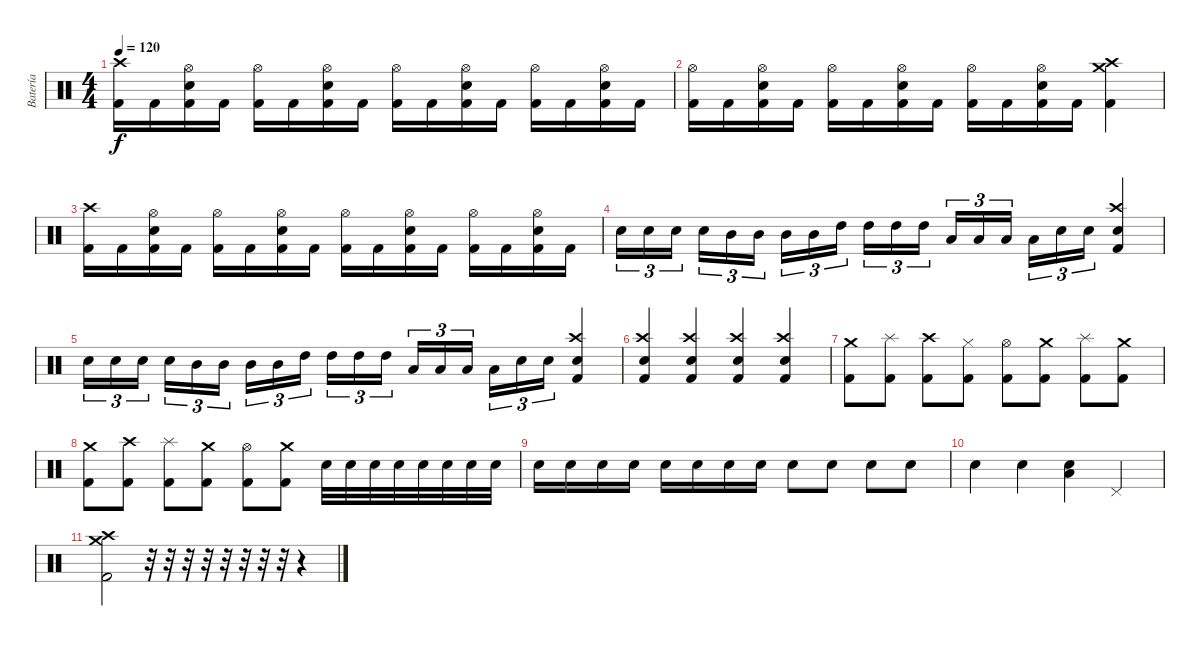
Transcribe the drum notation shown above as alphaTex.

\track ("Batería" "Batería") {instrument percussion}
\staff {score}
\articulation defaults
\ts (4 4)
\tempo 120
\clef neutral
\ks c
("Kick (hit) 2" "Crash high (hit)").16{dy f} "Kick (hit) 2".16 ("Kick (hit) 2" "Hi-Hat (open)" "Snare (hit) 2").16 "Kick (hit) 2".16 ("Kick (hit) 2" "Hi-Hat (open)").16 "Kick (hit) 2".16 ("Kick (hit) 2" "Hi-Hat (open)" "Snare (hit) 2").16 "Kick (hit) 2".16 ("Kick (hit) 2" "Hi-Hat (open)").16 "Kick (hit) 2".16 ("Kick (hit) 2" "Hi-Hat (open)" "Snare (hit) 2").16 "Kick (hit) 2".16 ("Kick (hit) 2" "Hi-Hat (open)").16 "Kick (hit) 2".16 ("Kick (hit) 2" "Hi-Hat (open)" "Snare (hit) 2").16 "Kick (hit) 2".16 |
("Kick (hit) 2" "Hi-Hat (open)").16 "Kick (hit) 2".16 ("Kick (hit) 2" "Hi-Hat (open)" "Snare (hit) 2").16 "Kick (hit) 2".16 ("Kick (hit) 2" "Hi-Hat (open)").16 "Kick (hit) 2".16 ("Kick (hit) 2" "Hi-Hat (open)" "Snare (hit) 2").16 "Kick (hit) 2".16 ("Kick (hit) 2" "Hi-Hat (open)").16 "Kick (hit) 2".16 ("Kick (hit) 2" "Hi-Hat (open)" "Snare (hit) 2").16 "Kick (hit) 2".16 ("Crash high (hit)" "Crash medium (hit)" "Kick (hit) 2").4 |
("Kick (hit) 2" "Crash high (hit)").16 "Kick (hit) 2".16 ("Kick (hit) 2" "Hi-Hat (open)" "Snare (hit) 2").16 "Kick (hit) 2".16 ("Kick (hit) 2" "Hi-Hat (open)").16 "Kick (hit) 2".16 ("Kick (hit) 2" "Hi-Hat (open)" "Snare (hit) 2").16 "Kick (hit) 2".16 ("Kick (hit) 2" "Hi-Hat (open)").16 "Kick (hit) 2".16 ("Kick (hit) 2" "Hi-Hat (open)" "Snare (hit) 2").16 "Kick (hit) 2".16 ("Kick (hit) 2" "Hi-Hat (open)").16 "Kick (hit) 2".16 ("Kick (hit) 2" "Hi-Hat (open)" "Snare (hit) 2").16 "Kick (hit) 2".16 |
"Snare (hit) 2".16{tu (3 2)} "Snare (hit) 2".16{tu (3 2)} "Snare (hit) 2".16{tu (3 2)} "Snare (hit) 2".16{tu (3 2)} "Mid Tom (hit)".16{tu (3 2)} "Mid Tom (hit)".16{tu (3 2)} "Mid Tom (hit)".16{tu (3 2)} "Mid Tom (hit)".16{tu (3 2)} "High Tom (hit)".16{tu (3 2)} "High Tom (hit)".16{tu (3 2)} "High Tom (hit)".16{tu (3 2)} "High Tom (hit)".16{tu (3 2)} "Low Tom (hit)".16{tu (3 2)} "Low Tom (hit)".16{tu (3 2)} "Low Tom (hit)".16{tu (3 2)} "Low Tom (hit)".16{tu (3 2)} "Snare (hit) 2".16{tu (3 2)} "Snare (hit) 2".16{tu (3 2)} ("Crash high (hit)" "Kick (hit) 2" "Snare (hit) 2").4 |
"Snare (hit) 2".16{tu (3 2)} "Snare (hit) 2".16{tu (3 2)} "Snare (hit) 2".16{tu (3 2)} "Snare (hit) 2".16{tu (3 2)} "Mid Tom (hit)".16{tu (3 2)} "Mid Tom (hit)".16{tu (3 2)} "Mid Tom (hit)".16{tu (3 2)} "Mid Tom (hit)".16{tu (3 2)} "High Tom (hit)".16{tu (3 2)} "High Tom (hit)".16{tu (3 2)} "High Tom (hit)".16{tu (3 2)} "High Tom (hit)".16{tu (3 2)} "Low Tom (hit)".16{tu (3 2)} "Low Tom (hit)".16{tu (3 2)} "Low Tom (hit)".16{tu (3 2)} "Low Tom (hit)".16{tu (3 2)} "Snare (hit) 2".16{tu (3 2)} "Snare (hit) 2".16{tu (3 2)} ("Crash high (hit)" "Kick (hit) 2" "Snare (hit) 2").4 |
("Crash high (hit)" "Kick (hit) 2" "Snare (hit) 2").4 ("Crash high (hit)" "Kick (hit) 2" "Snare (hit) 2").4 ("Crash high (hit)" "Kick (hit) 2" "Snare (hit) 2").4 ("Crash high (hit)" "Kick (hit) 2" "Snare (hit) 2").4 |
("Crash medium (hit)" "Kick (hit) 2").8 ("Splash (hit)" "Kick (hit) 2").8 ("Crash high (hit)" "Kick (hit) 2").8 ("Hi-Hat (closed)" "Kick (hit) 2").8 ("Hi-Hat (open)" "Kick (hit) 2").8 ("Crash medium (hit)" "Kick (hit) 2").8 ("Splash (hit)" "Kick (hit) 2").8 ("Crash medium (hit)" "Kick (hit) 2").8 |
("Crash medium (hit)" "Kick (hit) 2").8 ("Crash high (hit)" "Kick (hit) 2").8 ("Splash (hit)" "Kick (hit) 2").8 ("Crash medium (hit)" "Kick (hit) 2").8 ("Hi-Hat (open)" "Kick (hit) 2").8 ("Crash medium (hit)" "Kick (hit) 2").8 "Snare (hit) 2".32 "Snare (hit) 2".32 "Snare (hit) 2".32 "Snare (hit) 2".32 "Snare (hit) 2".32 "Snare (hit) 2".32 "Snare (hit) 2".32 "Snare (hit) 2".32 |
"Snare (hit) 2".16 "Snare (hit) 2".16 "Snare (hit) 2".16 "Snare (hit) 2".16 "Snare (hit) 2".16 "Snare (hit) 2".16 "Snare (hit) 2".16 "Snare (hit) 2".16 "Snare (hit) 2".8 "Snare (hit) 2".8 "Snare (hit) 2".8 "Snare (hit) 2".8 |
"Snare (hit) 2".4 "Snare (hit) 2".4 ("Snare (hit) 2" "Low Tom (hit)").4 "Pedal Hi-Hat (hit)".4 |
("Crash high (hit)" "Crash medium (hit)" "Kick (hit) 2").2 r.32 r.32 r.32 r.32 r.32 r.32 r.32 r.32 r.4
